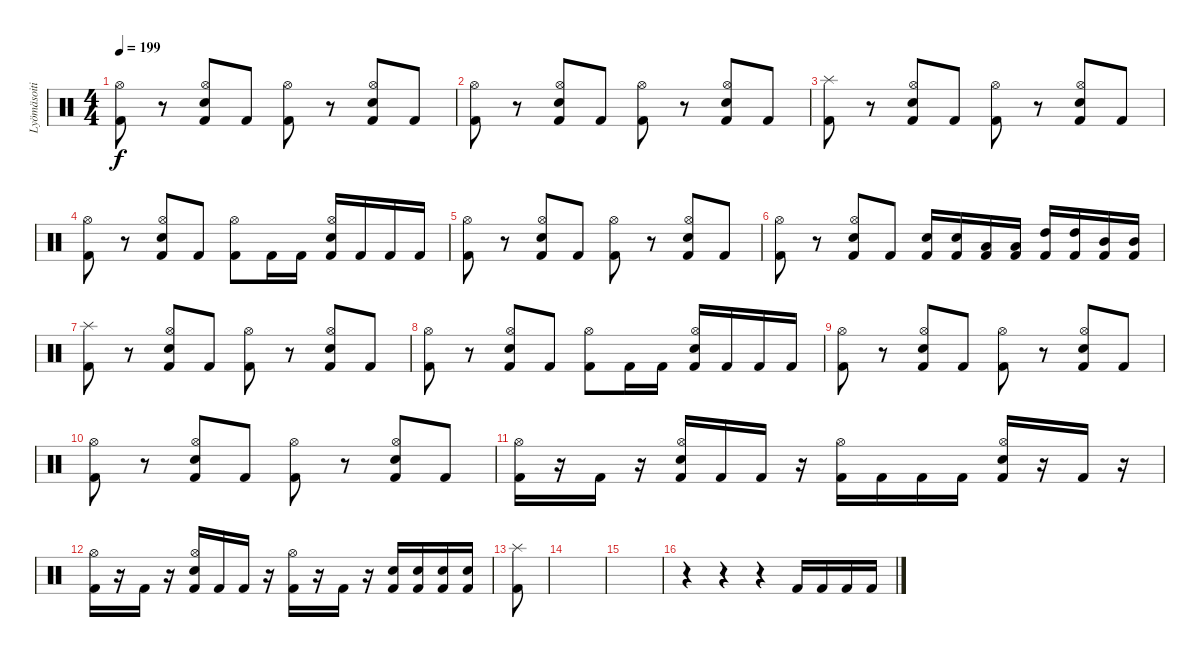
\track ("Lyömäsoitin" "Lyömäsoiti") {instrument percussion}
\staff {score}
\articulation defaults
\ts (4 4)
\tempo 199
\clef neutral
\ks c
("Kick (hit) 2" "Hi-Hat (open)").8{dy f} r.8 ("Kick (hit) 2" "Hi-Hat (open)" "Snare (hit) 2").8 "Kick (hit) 2".8 ("Kick (hit) 2" "Hi-Hat (open)").8 r.8 ("Kick (hit) 2" "Hi-Hat (open)" "Snare (hit) 2").8 "Kick (hit) 2".8 |
("Kick (hit) 2" "Hi-Hat (open)").8 r.8 ("Kick (hit) 2" "Hi-Hat (open)" "Snare (hit) 2").8 "Kick (hit) 2".8 ("Kick (hit) 2" "Hi-Hat (open)").8 r.8 ("Kick (hit) 2" "Hi-Hat (open)" "Snare (hit) 2").8 "Kick (hit) 2".8 |
("Kick (hit) 2" "Splash (hit)").8 r.8 ("Kick (hit) 2" "Hi-Hat (open)" "Snare (hit) 2").8 "Kick (hit) 2".8 ("Kick (hit) 2" "Hi-Hat (open)").8 r.8 ("Kick (hit) 2" "Hi-Hat (open)" "Snare (hit) 2").8 "Kick (hit) 2".8 |
("Kick (hit) 2" "Hi-Hat (open)").8 r.8 ("Kick (hit) 2" "Hi-Hat (open)" "Snare (hit) 2").8 "Kick (hit) 2".8 ("Kick (hit) 2" "Hi-Hat (open)").8 "Kick (hit) 2".16 "Kick (hit) 2".16 ("Kick (hit) 2" "Hi-Hat (open)" "Snare (hit) 2").16 "Kick (hit) 2".16 "Kick (hit) 2".16 "Kick (hit) 2".16 |
("Kick (hit) 2" "Hi-Hat (open)").8 r.8 ("Kick (hit) 2" "Hi-Hat (open)" "Snare (hit) 2").8 "Kick (hit) 2".8 ("Kick (hit) 2" "Hi-Hat (open)").8 r.8 ("Kick (hit) 2" "Hi-Hat (open)" "Snare (hit) 2").8 "Kick (hit) 2".8 |
("Kick (hit) 2" "Hi-Hat (open)").8 r.8 ("Kick (hit) 2" "Hi-Hat (open)" "Snare (hit) 2").8 "Kick (hit) 2".8 ("Kick (hit) 2" "Snare (hit) 2").16 ("Kick (hit) 2" "Snare (hit) 2").16 ("Kick (hit) 2" "Low Tom (hit)").16 ("Kick (hit) 2" "Low Tom (hit)").16 ("Kick (hit) 2" "High Tom (hit)").16 ("Kick (hit) 2" "High Tom (hit)").16 ("Kick (hit) 2" "Mid Tom (hit)").16 ("Kick (hit) 2" "Mid Tom (hit)").16 |
("Kick (hit) 2" "Splash (hit)").8 r.8 ("Kick (hit) 2" "Hi-Hat (open)" "Snare (hit) 2").8 "Kick (hit) 2".8 ("Kick (hit) 2" "Hi-Hat (open)").8 r.8 ("Kick (hit) 2" "Hi-Hat (open)" "Snare (hit) 2").8 "Kick (hit) 2".8 |
("Kick (hit) 2" "Hi-Hat (open)").8 r.8 ("Kick (hit) 2" "Hi-Hat (open)" "Snare (hit) 2").8 "Kick (hit) 2".8 ("Kick (hit) 2" "Hi-Hat (open)").8 "Kick (hit) 2".16 "Kick (hit) 2".16 ("Kick (hit) 2" "Hi-Hat (open)" "Snare (hit) 2").16 "Kick (hit) 2".16 "Kick (hit) 2".16 "Kick (hit) 2".16 |
("Kick (hit) 2" "Hi-Hat (open)").8 r.8 ("Kick (hit) 2" "Hi-Hat (open)" "Snare (hit) 2").8 "Kick (hit) 2".8 ("Kick (hit) 2" "Hi-Hat (open)").8 r.8 ("Kick (hit) 2" "Hi-Hat (open)" "Snare (hit) 2").8 "Kick (hit) 2".8 |
("Kick (hit) 2" "Hi-Hat (open)").8 r.8 ("Kick (hit) 2" "Hi-Hat (open)" "Snare (hit) 2").8 "Kick (hit) 2".8 ("Kick (hit) 2" "Hi-Hat (open)").8 r.8 ("Kick (hit) 2" "Hi-Hat (open)" "Snare (hit) 2").8 "Kick (hit) 2".8 |
("Kick (hit) 2" "Hi-Hat (open)").16 r.16 "Kick (hit) 2".16 r.16 ("Kick (hit) 2" "Snare (hit) 2" "Hi-Hat (open)").16 "Kick (hit) 2".16 "Kick (hit) 2".16 r.16 ("Kick (hit) 2" "Hi-Hat (open)").16 "Kick (hit) 2".16 "Kick (hit) 2".16 "Kick (hit) 2".16 ("Kick (hit) 2" "Snare (hit) 2" "Hi-Hat (open)").16 r.16 "Kick (hit) 2".16 r.16 |
("Kick (hit) 2" "Hi-Hat (open)").16 r.16 "Kick (hit) 2".16 r.16 ("Kick (hit) 2" "Snare (hit) 2" "Hi-Hat (open)").16 "Kick (hit) 2".16 "Kick (hit) 2".16 r.16 ("Kick (hit) 2" "Hi-Hat (open)").16 r.16 "Kick (hit) 2".16 r.16 ("Kick (hit) 2" "Snare (hit) 2").16 ("Kick (hit) 2" "Snare (hit) 2").16 ("Kick (hit) 2" "Snare (hit) 2").16 ("Kick (hit) 2" "Snare (hit) 2").16 |
("Kick (hit) 2" "Splash (hit)").8 |
|
|
r.4 r.4 r.4 "Kick (hit) 2".16 "Kick (hit) 2".16 "Kick (hit) 2".16 "Kick (hit) 2".16
